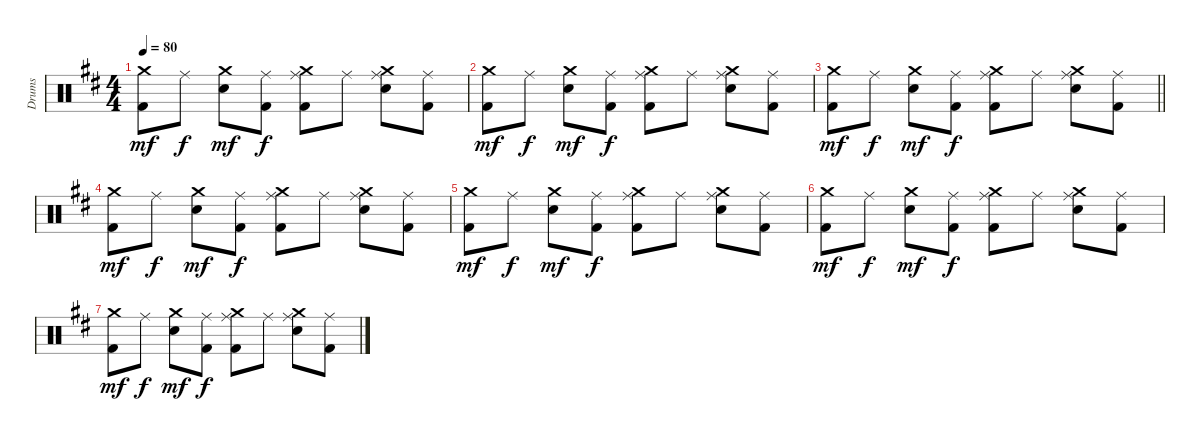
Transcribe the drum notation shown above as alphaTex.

\track ("Drums" "Drums") {instrument percussion}
\staff {score}
\articulation defaults
\ts (4 4)
\tempo 80
\clef neutral
\ks d
("Crash medium (hit)" "Kick (hit) 2").8{dy mf} "Ride (middle)".8{dy f} ("Crash medium (hit)" "Snare (hit) 2").8{dy mf} ("Ride (middle)" "Kick (hit) 2").8{dy f} ("Crash medium (hit)" "Ride (middle)" "Kick (hit) 2").8 "Ride (middle)".8 ("Crash medium (hit)" "Ride (middle)" "Snare (hit) 2").8 ("Ride (middle)" "Kick (hit) 2").8 |
("Crash medium (hit)" "Kick (hit) 2").8{dy mf} "Ride (middle)".8{dy f} ("Crash medium (hit)" "Snare (hit) 2").8{dy mf} ("Ride (middle)" "Kick (hit) 2").8{dy f} ("Crash medium (hit)" "Ride (middle)" "Kick (hit) 2").8 "Ride (middle)".8 ("Crash medium (hit)" "Ride (middle)" "Snare (hit) 2").8 ("Ride (middle)" "Kick (hit) 2").8 |
\barLineRight lightlight
("Crash medium (hit)" "Kick (hit) 2").8{dy mf} "Ride (middle)".8{dy f} ("Crash medium (hit)" "Snare (hit) 2").8{dy mf} ("Ride (middle)" "Kick (hit) 2").8{dy f} ("Crash medium (hit)" "Ride (middle)" "Kick (hit) 2").8 "Ride (middle)".8 ("Crash medium (hit)" "Ride (middle)" "Snare (hit) 2").8 ("Ride (middle)" "Kick (hit) 2").8 |
("Crash medium (hit)" "Kick (hit) 2").8{dy mf} "Ride (middle)".8{dy f} ("Crash medium (hit)" "Snare (hit) 2").8{dy mf} ("Ride (middle)" "Kick (hit) 2").8{dy f} ("Crash medium (hit)" "Ride (middle)" "Kick (hit) 2").8 "Ride (middle)".8 ("Crash medium (hit)" "Ride (middle)" "Snare (hit) 2").8 ("Ride (middle)" "Kick (hit) 2").8 |
("Crash medium (hit)" "Kick (hit) 2").8{dy mf} "Ride (middle)".8{dy f} ("Crash medium (hit)" "Snare (hit) 2").8{dy mf} ("Ride (middle)" "Kick (hit) 2").8{dy f} ("Crash medium (hit)" "Ride (middle)" "Kick (hit) 2").8 "Ride (middle)".8 ("Crash medium (hit)" "Ride (middle)" "Snare (hit) 2").8 ("Ride (middle)" "Kick (hit) 2").8 |
("Crash medium (hit)" "Kick (hit) 2").8{dy mf volume 0} "Ride (middle)".8{dy f} ("Crash medium (hit)" "Snare (hit) 2").8{dy mf} ("Ride (middle)" "Kick (hit) 2").8{dy f} ("Crash medium (hit)" "Ride (middle)" "Kick (hit) 2").8 "Ride (middle)".8 ("Crash medium (hit)" "Ride (middle)" "Snare (hit) 2").8 ("Ride (middle)" "Kick (hit) 2").8 |
("Crash medium (hit)" "Kick (hit) 2").8{dy mf} "Ride (middle)".8{dy f} ("Crash medium (hit)" "Snare (hit) 2").8{dy mf} ("Ride (middle)" "Kick (hit) 2").8{dy f} ("Crash medium (hit)" "Ride (middle)" "Kick (hit) 2").8 "Ride (middle)".8 ("Crash medium (hit)" "Ride (middle)" "Snare (hit) 2").8 ("Ride (middle)" "Kick (hit) 2").8
